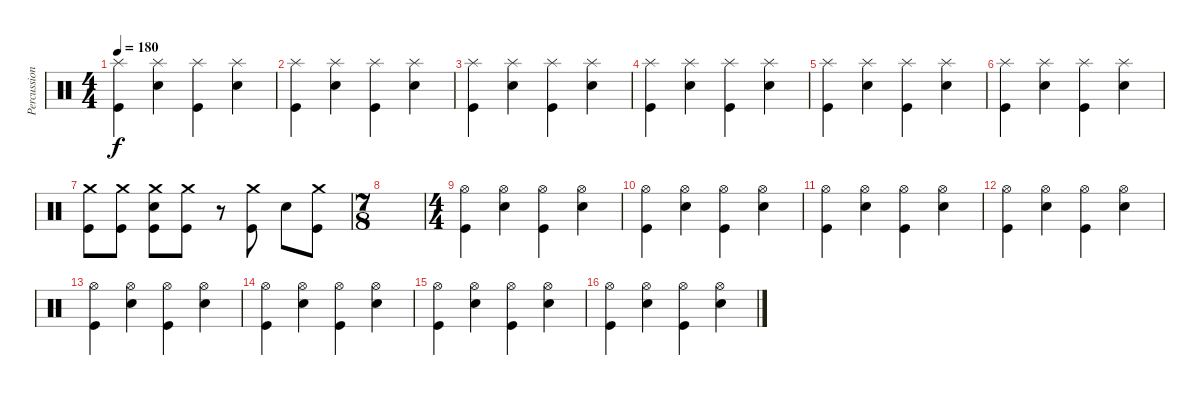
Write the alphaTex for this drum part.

\track ("Percussions" "Percussion") {instrument percussion}
\staff {score}
\articulation defaults
\ts (4 4)
\tempo 180
\clef neutral
\ks c
("Kick (hit)" "Splash (hit)").4{dy f} ("Electric Snare (hit)" "Splash (hit)").4 ("Kick (hit)" "Splash (hit)").4 ("Electric Snare (hit)" "Splash (hit)").4 |
("Kick (hit)" "Splash (hit)").4 ("Electric Snare (hit)" "Splash (hit)").4 ("Kick (hit)" "Splash (hit)").4 ("Electric Snare (hit)" "Splash (hit)").4 |
("Kick (hit)" "Splash (hit)").4 ("Electric Snare (hit)" "Splash (hit)").4 ("Kick (hit)" "Splash (hit)").4 ("Electric Snare (hit)" "Splash (hit)").4 |
("Kick (hit)" "Splash (hit)").4 ("Electric Snare (hit)" "Splash (hit)").4 ("Kick (hit)" "Splash (hit)").4 ("Electric Snare (hit)" "Splash (hit)").4 |
("Kick (hit)" "Splash (hit)").4 ("Electric Snare (hit)" "Splash (hit)").4 ("Kick (hit)" "Splash (hit)").4 ("Electric Snare (hit)" "Splash (hit)").4 |
("Kick (hit)" "Splash (hit)").4 ("Electric Snare (hit)" "Splash (hit)").4 ("Kick (hit)" "Splash (hit)").4 ("Electric Snare (hit)" "Splash (hit)").4 |
("Kick (hit)" "Crash medium (hit)").8 ("Kick (hit)" "Crash medium (hit)").8 ("Kick (hit)" "Electric Snare (hit)" "Crash medium (hit)").8 ("Kick (hit)" "Crash medium (hit)").8 r.8 ("Kick (hit)" "Crash medium (hit)").8 "Electric Snare (hit)".8 ("Kick (hit)" "Crash medium (hit)").8 |
\ts (7 8)
|
\ts (4 4)
("Kick (hit)" "Hi-Hat (open)").4 ("Electric Snare (hit)" "Hi-Hat (open)").4 ("Kick (hit)" "Hi-Hat (open)").4 ("Electric Snare (hit)" "Hi-Hat (open)").4 |
("Kick (hit)" "Hi-Hat (open)").4 ("Electric Snare (hit)" "Hi-Hat (open)").4 ("Kick (hit)" "Hi-Hat (open)").4 ("Electric Snare (hit)" "Hi-Hat (open)").4 |
("Kick (hit)" "Hi-Hat (open)").4 ("Electric Snare (hit)" "Hi-Hat (open)").4 ("Kick (hit)" "Hi-Hat (open)").4 ("Electric Snare (hit)" "Hi-Hat (open)").4 |
("Kick (hit)" "Hi-Hat (open)").4 ("Electric Snare (hit)" "Hi-Hat (open)").4 ("Kick (hit)" "Hi-Hat (open)").4 ("Electric Snare (hit)" "Hi-Hat (open)").4 |
("Kick (hit)" "Hi-Hat (open)").4 ("Electric Snare (hit)" "Hi-Hat (open)").4 ("Kick (hit)" "Hi-Hat (open)").4 ("Electric Snare (hit)" "Hi-Hat (open)").4 |
("Kick (hit)" "Hi-Hat (open)").4 ("Electric Snare (hit)" "Hi-Hat (open)").4 ("Kick (hit)" "Hi-Hat (open)").4 ("Electric Snare (hit)" "Hi-Hat (open)").4 |
("Kick (hit)" "Hi-Hat (open)").4 ("Electric Snare (hit)" "Hi-Hat (open)").4 ("Kick (hit)" "Hi-Hat (open)").4 ("Electric Snare (hit)" "Hi-Hat (open)").4 |
("Kick (hit)" "Hi-Hat (open)").4 ("Electric Snare (hit)" "Hi-Hat (open)").4 ("Kick (hit)" "Hi-Hat (open)").4 ("Electric Snare (hit)" "Hi-Hat (open)").4
